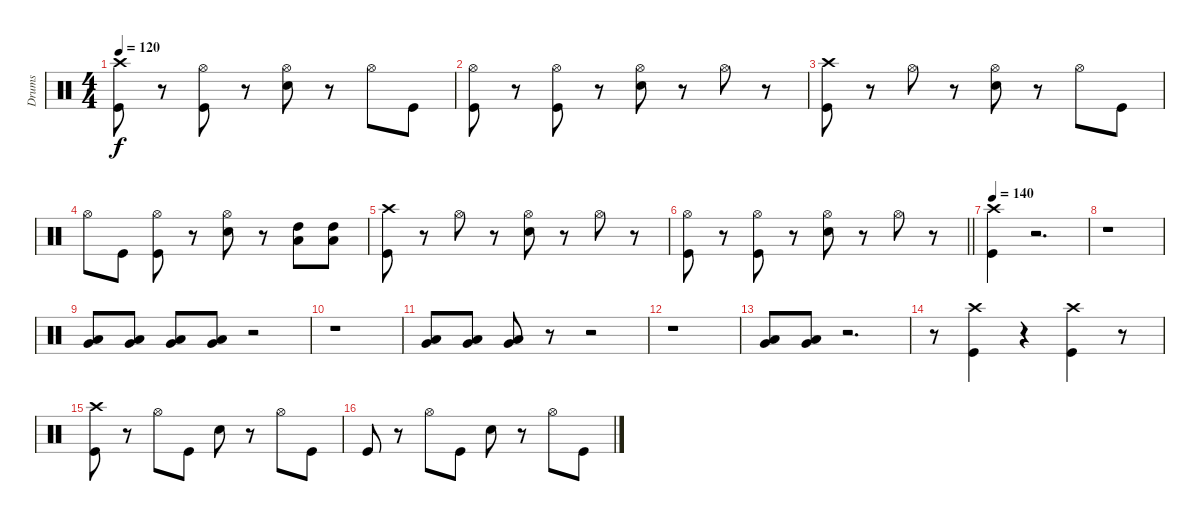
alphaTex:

\track ("Drums" "Drums") {instrument percussion}
\staff {score}
\articulation defaults
\ts (4 4)
\tempo 120
\clef neutral
\ks c
("Crash high (hit)" "Kick (hit)").8{dy f} r.8 ("Hi-Hat (open)" "Kick (hit)").8 r.8 ("Hi-Hat (open)" "Snare (hit) 2").8 r.8 "Hi-Hat (open)".8 "Kick (hit)".8 |
("Hi-Hat (open)" "Kick (hit)").8 r.8 ("Hi-Hat (open)" "Kick (hit)").8 r.8 ("Hi-Hat (open)" "Snare (hit) 2").8 r.8 "Hi-Hat (open)".8 r.8 |
("Crash high (hit)" "Kick (hit)").8 r.8 "Hi-Hat (open)".8 r.8 ("Hi-Hat (open)" "Snare (hit) 2").8 r.8 "Hi-Hat (open)".8 "Kick (hit)".8 |
"Hi-Hat (open)".8 "Kick (hit)".8 ("Hi-Hat (open)" "Kick (hit)").8 r.8 ("Hi-Hat (open)" "Snare (hit) 2").8 r.8 ("High Tom (hit)" "Low Floor Tom (hit)").8 ("High Tom (hit)" "Low Floor Tom (hit)").8 |
("Crash high (hit)" "Kick (hit)").8 r.8 "Hi-Hat (open)".8 r.8 ("Hi-Hat (open)" "Snare (hit) 2").8 r.8 "Hi-Hat (open)".8 r.8 |
\barLineRight lightlight
("Hi-Hat (open)" "Kick (hit)").8 r.8 ("Hi-Hat (open)" "Kick (hit)").8 r.8 ("Hi-Hat (open)" "Snare (hit) 2").8 r.8 "Hi-Hat (open)".8 r.8 |
\tempo 140
("Crash high (hit)" "Kick (hit)").4 r.2{d} |
r.1 |
("Low Tom (hit)" "Very Low Tom (hit)").8 ("Low Tom (hit)" "Very Low Tom (hit)").8 ("Low Tom (hit)" "Very Low Tom (hit)").8 ("Low Tom (hit)" "Very Low Tom (hit)").8 r.2 |
r.1 |
("Low Tom (hit)" "Very Low Tom (hit)").8 ("Low Tom (hit)" "Very Low Tom (hit)").8 ("Low Tom (hit)" "Very Low Tom (hit)").8 r.8 r.2 |
r.1 |
("Low Tom (hit)" "Very Low Tom (hit)").8 ("Low Tom (hit)" "Very Low Tom (hit)").8 r.2{d} |
r.8 ("Crash high (hit)" "Kick (hit)").4 r.4 ("Crash high (hit)" "Kick (hit)").4 r.8 |
("Crash high (hit)" "Kick (hit)").8 r.8 "Hi-Hat (open)".8 "Kick (hit)".8 "Snare (hit) 2".8 r.8 "Hi-Hat (open)".8 "Kick (hit)".8 |
"Kick (hit)".8 r.8 "Hi-Hat (open)".8 "Kick (hit)".8 "Snare (hit) 2".8 r.8 "Hi-Hat (open)".8 "Kick (hit)".8
